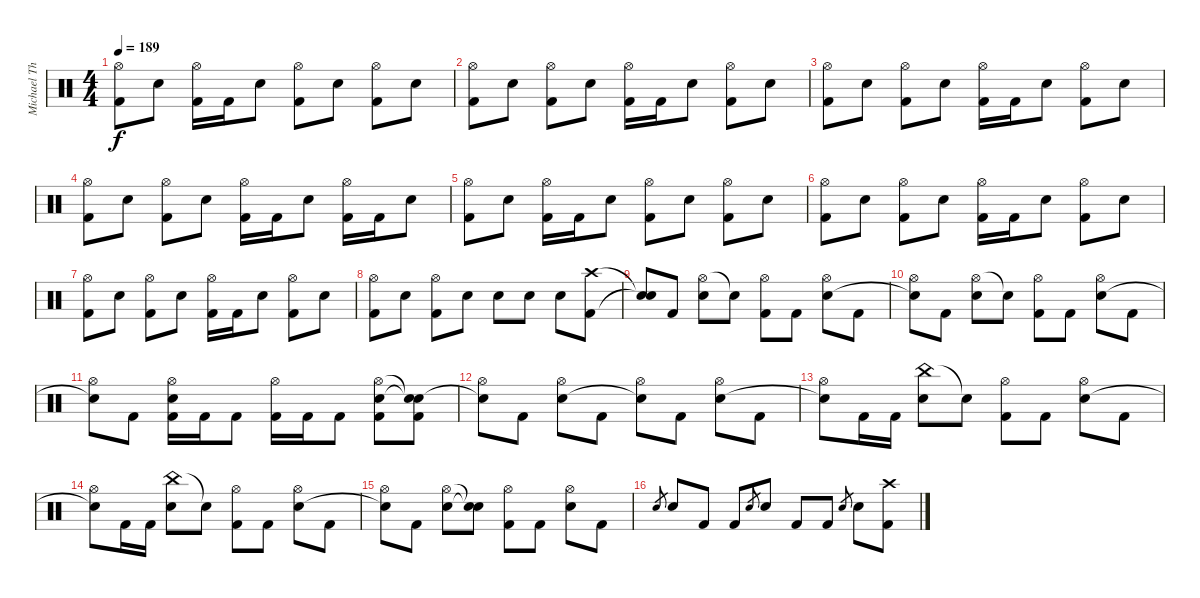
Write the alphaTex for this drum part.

\track ("Michael Thomas" "Michael Th") {instrument percussion}
\staff {score}
\articulation defaults
\ts (4 4)
\tempo 189
\clef neutral
\ks c
("Hi-Hat (open)" "Kick (hit) 2").8{dy f} "Electric Snare (hit)".8 ("Hi-Hat (open)" "Kick (hit) 2").16 "Kick (hit) 2".16 "Electric Snare (hit)".8 ("Hi-Hat (open)" "Kick (hit) 2").8 "Electric Snare (hit)".8 ("Hi-Hat (open)" "Kick (hit) 2").8 "Electric Snare (hit)".8 |
("Hi-Hat (open)" "Kick (hit) 2").8 "Electric Snare (hit)".8 ("Hi-Hat (open)" "Kick (hit) 2").8 "Electric Snare (hit)".8 ("Hi-Hat (open)" "Kick (hit) 2").16 "Kick (hit) 2".16 "Electric Snare (hit)".8 ("Hi-Hat (open)" "Kick (hit) 2").8 "Electric Snare (hit)".8 |
("Hi-Hat (open)" "Kick (hit) 2").8 "Electric Snare (hit)".8 ("Hi-Hat (open)" "Kick (hit) 2").8 "Electric Snare (hit)".8 ("Hi-Hat (open)" "Kick (hit) 2").16 "Kick (hit) 2".16 "Electric Snare (hit)".8 ("Hi-Hat (open)" "Kick (hit) 2").8 "Electric Snare (hit)".8 |
("Hi-Hat (open)" "Kick (hit) 2").8 "Electric Snare (hit)".8 ("Hi-Hat (open)" "Kick (hit) 2").8 "Electric Snare (hit)".8 ("Hi-Hat (open)" "Kick (hit) 2").16 "Kick (hit) 2".16 "Electric Snare (hit)".8 ("Hi-Hat (open)" "Kick (hit) 2").16 "Kick (hit) 2".16 "Electric Snare (hit)".8 |
("Hi-Hat (open)" "Kick (hit) 2").8 "Electric Snare (hit)".8 ("Hi-Hat (open)" "Kick (hit) 2").16 "Kick (hit) 2".16 "Electric Snare (hit)".8 ("Hi-Hat (open)" "Kick (hit) 2").8 "Electric Snare (hit)".8 ("Hi-Hat (open)" "Kick (hit) 2").8 "Electric Snare (hit)".8 |
("Hi-Hat (open)" "Kick (hit) 2").8 "Electric Snare (hit)".8 ("Hi-Hat (open)" "Kick (hit) 2").8 "Electric Snare (hit)".8 ("Hi-Hat (open)" "Kick (hit) 2").16 "Kick (hit) 2".16 "Electric Snare (hit)".8 ("Hi-Hat (open)" "Kick (hit) 2").8 "Electric Snare (hit)".8 |
("Hi-Hat (open)" "Kick (hit) 2").8 "Electric Snare (hit)".8 ("Hi-Hat (open)" "Kick (hit) 2").8 "Electric Snare (hit)".8 ("Hi-Hat (open)" "Kick (hit) 2").16 "Kick (hit) 2".16 "Electric Snare (hit)".8 ("Hi-Hat (open)" "Kick (hit) 2").8 "Electric Snare (hit)".8 |
("Hi-Hat (open)" "Kick (hit) 2").8 "Electric Snare (hit)".8 ("Hi-Hat (open)" "Kick (hit) 2").8 "Electric Snare (hit)".8 "Electric Snare (hit)".8 "Electric Snare (hit)".8 "Electric Snare (hit)".8 ("Crash high (hit)" "Kick (hit) 2").8 |
("Snare (hit)"{t} "Snare (hit)"{t}).8 "Kick (hit) 2".8 ("Hi-Hat (open)" "Electric Snare (hit)").8 "Snare (hit)"{t}.8 ("Hi-Hat (open)" "Kick (hit) 2").8 "Kick (hit) 2".8 ("Hi-Hat (open)" "Electric Snare (hit)").8 "Kick (hit) 2".8 |
("Hi-Hat (open)" "Snare (hit)"{t}).8 "Kick (hit) 2".8 ("Hi-Hat (open)" "Electric Snare (hit)").8 "Snare (hit)"{t}.8 ("Hi-Hat (open)" "Kick (hit) 2").8 "Kick (hit) 2".8 ("Hi-Hat (open)" "Electric Snare (hit)").8 "Kick (hit) 2".8 |
("Hi-Hat (open)" "Snare (hit)"{t}).8 "Kick (hit) 2".8 ("Hi-Hat (open)" "Electric Snare (hit)" "Kick (hit) 2").16 "Kick (hit) 2".16 "Kick (hit) 2".8 ("Hi-Hat (open)" "Kick (hit) 2").16 "Kick (hit) 2".16 "Kick (hit) 2".8 ("Hi-Hat (open)" "Electric Snare (hit)" "Kick (hit) 2").8 ("Snare (hit)"{t} "Snare (hit)"{t} "Kick (hit) 2").8 |
("Hi-Hat (open)" "Snare (hit)"{t}).8 "Kick (hit) 2".8 ("Hi-Hat (open)" "Electric Snare (hit)").8 "Kick (hit) 2".8 ("Hi-Hat (open)" "Snare (hit)"{t}).8 "Kick (hit) 2".8 ("Hi-Hat (open)" "Electric Snare (hit)").8 "Kick (hit) 2".8 |
("Hi-Hat (open)" "Snare (hit)"{t}).8 "Kick (hit) 2".16 "Kick (hit) 2".16 ("China (hit)" "Electric Snare (hit)").8 "Snare (hit)"{t}.8 ("Hi-Hat (open)" "Kick (hit) 2").8 "Kick (hit) 2".8 ("Hi-Hat (open)" "Electric Snare (hit)").8 "Kick (hit) 2".8 |
("Hi-Hat (open)" "Snare (hit)"{t}).8 "Kick (hit) 2".16 "Kick (hit) 2".16 ("China (hit)" "Electric Snare (hit)").8 "Snare (hit)"{t}.8 ("Hi-Hat (open)" "Kick (hit) 2").8 "Kick (hit) 2".8 ("Hi-Hat (open)" "Electric Snare (hit)").8 "Kick (hit) 2".8 |
("Hi-Hat (open)" "Snare (hit)"{t}).8 "Kick (hit) 2".8 ("Hi-Hat (open)" "Electric Snare (hit)").8 ("Snare (hit)"{t} "Snare (hit)"{t}).8 ("Hi-Hat (open)" "Kick (hit) 2").8 "Kick (hit) 2".8 ("Hi-Hat (open)" "Electric Snare (hit)").8 "Kick (hit) 2".8 |
"Electric Snare (hit)".8{gr} "Electric Snare (hit)".8 "Kick (hit) 2".8 "Kick (hit) 2".8 "Electric Snare (hit)".8{gr} "Electric Snare (hit)".8 "Kick (hit) 2".8 "Kick (hit) 2".8 "Electric Snare (hit)".8{gr} "Electric Snare (hit)".8 ("Crash high (hit)" "Kick (hit) 2").8
